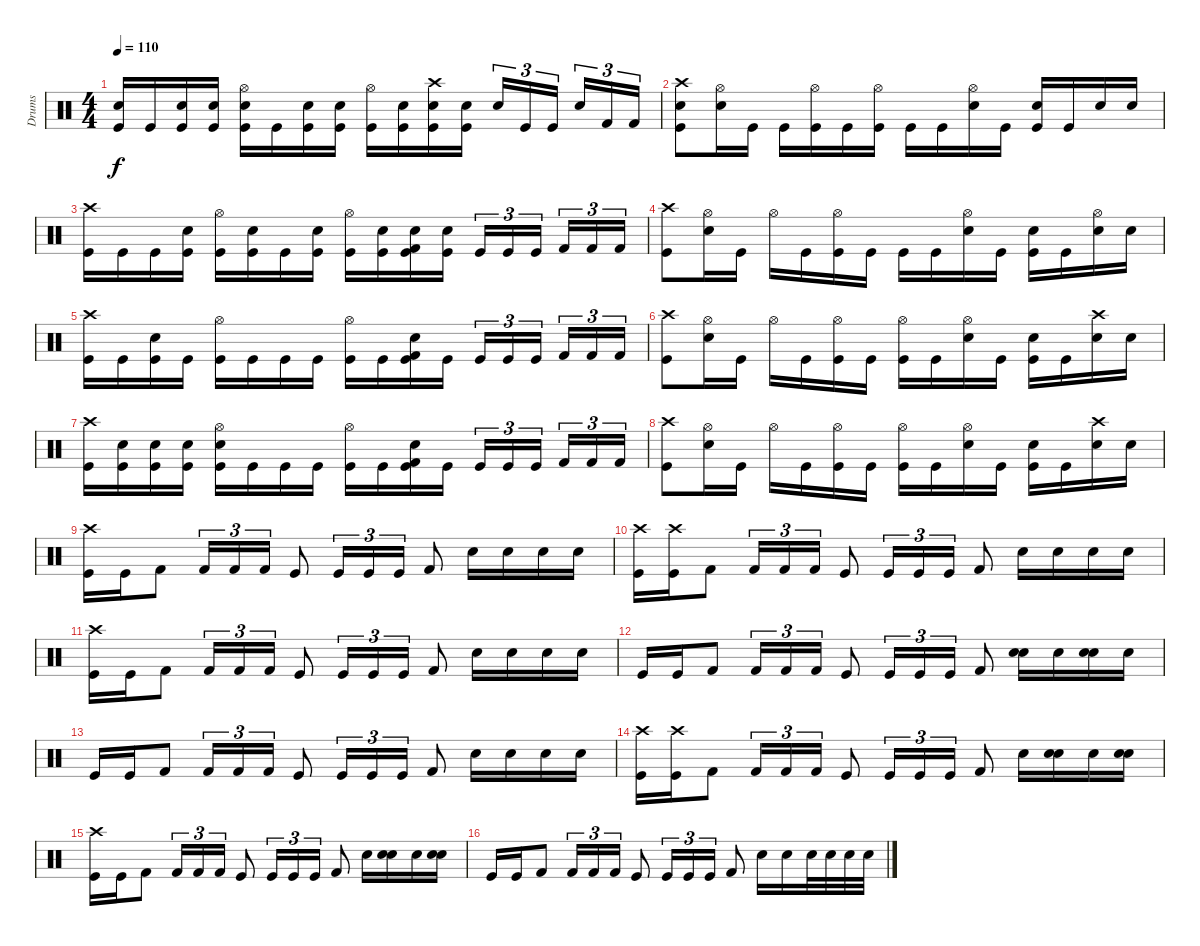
\track ("Drums" "Drums") {instrument percussion}
\staff {score}
\articulation defaults
\ts (4 4)
\tempo 110
\clef neutral
\ks c
("Snare (hit) 2" "Kick (hit)").16{dy f} "Kick (hit)".16 ("Snare (hit) 2" "Kick (hit)").16 ("Snare (hit) 2" "Kick (hit)").16 ("Hi-Hat (open)" "Snare (hit) 2" "Kick (hit)").16 "Kick (hit)".16 ("Snare (hit) 2" "Kick (hit)").16 ("Snare (hit) 2" "Kick (hit)").16 ("Hi-Hat (open)" "Kick (hit)").16 ("Snare (hit) 2" "Kick (hit)").16 ("Crash high (hit)" "Snare (hit) 2" "Kick (hit)").16 ("Snare (hit) 2" "Kick (hit)").16 "Electric Snare (hit)".16{tu (3 2)} "Kick (hit)".16{tu (3 2)} "Kick (hit)".16{tu (3 2)} "Electric Snare (hit)".16{tu (3 2)} "Kick (hit) 2".16{tu (3 2)} "Kick (hit) 2".16{tu (3 2)} |
("Crash high (hit)" "Snare (hit) 2" "Kick (hit)").8 ("Hi-Hat (open)" "Snare (hit) 2").16 "Kick (hit)".16 "Kick (hit)".16 ("Hi-Hat (open)" "Kick (hit)").16 "Kick (hit)".16 ("Hi-Hat (open)" "Kick (hit)").16 "Kick (hit)".16 "Kick (hit)".16 ("Hi-Hat (open)" "Snare (hit) 2").16 "Kick (hit)".16 ("Snare (hit) 2" "Kick (hit)").16 "Kick (hit)".16 "Snare (hit) 2".16 "Snare (hit) 2".16 |
("Crash high (hit)" "Kick (hit)").16 "Kick (hit)".16 "Kick (hit)".16 ("Snare (hit) 2" "Kick (hit)").16 ("Hi-Hat (open)" "Kick (hit)").16 ("Snare (hit) 2" "Kick (hit)").16 "Kick (hit)".16 ("Snare (hit) 2" "Kick (hit)").16 ("Hi-Hat (open)" "Kick (hit)").16 ("Snare (hit) 2" "Kick (hit)").16 ("Kick (hit) 2" "Snare (hit) 2" "Kick (hit)").16 ("Snare (hit) 2" "Kick (hit)").16 "Kick (hit)".16{tu (3 2)} "Kick (hit)".16{tu (3 2)} "Kick (hit)".16{tu (3 2)} "Kick (hit) 2".16{tu (3 2)} "Kick (hit) 2".16{tu (3 2)} "Kick (hit) 2".16{tu (3 2)} |
("Crash high (hit)" "Kick (hit)").8 ("Hi-Hat (open)" "Snare (hit) 2").16 "Kick (hit)".16 "Hi-Hat (open)".16 "Kick (hit)".16 ("Hi-Hat (open)" "Kick (hit)").16 "Kick (hit)".16 "Kick (hit)".16 "Kick (hit)".16 ("Hi-Hat (open)" "Snare (hit) 2").16 "Kick (hit)".16 ("Snare (hit) 2" "Kick (hit)").16 "Kick (hit)".16 ("Hi-Hat (open)" "Snare (hit) 2").16 "Snare (hit) 2".16 |
("Crash high (hit)" "Kick (hit)").16 "Kick (hit)".16 ("Snare (hit) 2" "Kick (hit)").16 "Kick (hit)".16 ("Hi-Hat (open)" "Kick (hit)").16 "Kick (hit)".16 "Kick (hit)".16 "Kick (hit)".16 ("Hi-Hat (open)" "Kick (hit)").16 "Kick (hit)".16 ("Kick (hit) 2" "Snare (hit) 2" "Kick (hit)").16 "Kick (hit)".16 "Kick (hit)".16{tu (3 2)} "Kick (hit)".16{tu (3 2)} "Kick (hit)".16{tu (3 2)} "Kick (hit) 2".16{tu (3 2)} "Kick (hit) 2".16{tu (3 2)} "Kick (hit) 2".16{tu (3 2)} |
("Crash high (hit)" "Kick (hit)").8 ("Hi-Hat (open)" "Snare (hit) 2").16 "Kick (hit)".16 "Hi-Hat (open)".16 "Kick (hit)".16 ("Hi-Hat (open)" "Kick (hit)").16 "Kick (hit)".16 ("Hi-Hat (open)" "Kick (hit)").16 "Kick (hit)".16 ("Hi-Hat (open)" "Snare (hit) 2").16 "Kick (hit)".16 ("Snare (hit) 2" "Kick (hit)").16 "Kick (hit)".16 ("Crash high (hit)" "Snare (hit) 2").16 "Snare (hit) 2".16 |
("Crash high (hit)" "Kick (hit)").16 ("Snare (hit) 2" "Kick (hit)").16 ("Snare (hit) 2" "Kick (hit)").16 ("Snare (hit) 2" "Kick (hit)").16 ("Hi-Hat (open)" "Snare (hit) 2" "Kick (hit)").16 "Kick (hit)".16 "Kick (hit)".16 "Kick (hit)".16 ("Hi-Hat (open)" "Kick (hit)").16 "Kick (hit)".16 ("Kick (hit) 2" "Snare (hit) 2" "Kick (hit)").16 "Kick (hit)".16 "Kick (hit)".16{tu (3 2)} "Kick (hit)".16{tu (3 2)} "Kick (hit)".16{tu (3 2)} "Kick (hit) 2".16{tu (3 2)} "Kick (hit) 2".16{tu (3 2)} "Kick (hit) 2".16{tu (3 2)} |
("Crash high (hit)" "Kick (hit)").8 ("Hi-Hat (open)" "Snare (hit) 2").16 "Kick (hit)".16 "Hi-Hat (open)".16 "Kick (hit)".16 ("Hi-Hat (open)" "Kick (hit)").16 "Kick (hit)".16 ("Hi-Hat (open)" "Kick (hit)").16 "Kick (hit)".16 ("Hi-Hat (open)" "Snare (hit) 2").16 "Kick (hit)".16 ("Snare (hit) 2" "Kick (hit)").16 "Kick (hit)".16 ("Crash high (hit)" "Snare (hit) 2").16 "Snare (hit) 2".16 |
("Crash high (hit)" "Kick (hit)").16 "Kick (hit)".16 "Kick (hit) 2".8 "Kick (hit) 2".16{tu (3 2)} "Kick (hit) 2".16{tu (3 2)} "Kick (hit) 2".16{tu (3 2)} "Kick (hit)".8 "Kick (hit)".16{tu (3 2)} "Kick (hit)".16{tu (3 2)} "Kick (hit)".16{tu (3 2)} "Kick (hit) 2".8 "Snare (hit) 2".16 "Snare (hit) 2".16 "Snare (hit) 2".16 "Snare (hit) 2".16 |
("Crash high (hit)" "Kick (hit)").16 ("Crash high (hit)" "Kick (hit)").16 "Kick (hit) 2".8 "Kick (hit) 2".16{tu (3 2)} "Kick (hit) 2".16{tu (3 2)} "Kick (hit) 2".16{tu (3 2)} "Kick (hit)".8 "Kick (hit)".16{tu (3 2)} "Kick (hit)".16{tu (3 2)} "Kick (hit)".16{tu (3 2)} "Kick (hit) 2".8 "Snare (hit) 2".16 "Snare (hit) 2".16 "Snare (hit) 2".16 "Snare (hit) 2".16 |
("Crash high (hit)" "Kick (hit)").16 "Kick (hit)".16 "Kick (hit) 2".8 "Kick (hit) 2".16{tu (3 2)} "Kick (hit) 2".16{tu (3 2)} "Kick (hit) 2".16{tu (3 2)} "Kick (hit)".8 "Kick (hit)".16{tu (3 2)} "Kick (hit)".16{tu (3 2)} "Kick (hit)".16{tu (3 2)} "Kick (hit) 2".8 "Snare (hit) 2".16 "Snare (hit) 2".16 "Snare (hit) 2".16 "Snare (hit) 2".16 |
"Kick (hit)".16 "Kick (hit)".16 "Kick (hit) 2".8 "Kick (hit) 2".16{tu (3 2)} "Kick (hit) 2".16{tu (3 2)} "Kick (hit) 2".16{tu (3 2)} "Kick (hit)".8 "Kick (hit)".16{tu (3 2)} "Kick (hit)".16{tu (3 2)} "Kick (hit)".16{tu (3 2)} "Kick (hit) 2".8 ("Electric Snare (hit)" "Snare (hit) 2").16 "Snare (hit) 2".16 ("Electric Snare (hit)" "Snare (hit) 2").16 "Snare (hit) 2".16 |
"Kick (hit)".16 "Kick (hit)".16 "Kick (hit) 2".8 "Kick (hit) 2".16{tu (3 2)} "Kick (hit) 2".16{tu (3 2)} "Kick (hit) 2".16{tu (3 2)} "Kick (hit)".8 "Kick (hit)".16{tu (3 2)} "Kick (hit)".16{tu (3 2)} "Kick (hit)".16{tu (3 2)} "Kick (hit) 2".8 "Snare (hit) 2".16 "Snare (hit) 2".16 "Snare (hit) 2".16 "Snare (hit) 2".16 |
("Crash high (hit)" "Kick (hit)").16 ("Crash high (hit)" "Kick (hit)").16 "Kick (hit) 2".8 "Kick (hit) 2".16{tu (3 2)} "Kick (hit) 2".16{tu (3 2)} "Kick (hit) 2".16{tu (3 2)} "Kick (hit)".8 "Kick (hit)".16{tu (3 2)} "Kick (hit)".16{tu (3 2)} "Kick (hit)".16{tu (3 2)} "Kick (hit) 2".8 "Snare (hit) 2".16 ("Electric Snare (hit)" "Snare (hit) 2").16 "Snare (hit) 2".16 ("Electric Snare (hit)" "Snare (hit) 2").16 |
("Crash high (hit)" "Kick (hit)").16 "Kick (hit)".16 "Kick (hit) 2".8 "Kick (hit) 2".16{tu (3 2)} "Kick (hit) 2".16{tu (3 2)} "Kick (hit) 2".16{tu (3 2)} "Kick (hit)".8 "Kick (hit)".16{tu (3 2)} "Kick (hit)".16{tu (3 2)} "Kick (hit)".16{tu (3 2)} "Kick (hit) 2".8 "Snare (hit) 2".16 ("Electric Snare (hit)" "Snare (hit) 2").16 "Snare (hit) 2".16 ("Electric Snare (hit)" "Snare (hit) 2").16 |
"Kick (hit)".16 "Kick (hit)".16 "Kick (hit) 2".8 "Kick (hit) 2".16{tu (3 2)} "Kick (hit) 2".16{tu (3 2)} "Kick (hit) 2".16{tu (3 2)} "Kick (hit)".8 "Kick (hit)".16{tu (3 2)} "Kick (hit)".16{tu (3 2)} "Kick (hit)".16{tu (3 2)} "Kick (hit) 2".8 "Snare (hit) 2".16 "Snare (hit) 2".16 "Snare (hit) 2".32 "Snare (hit) 2".32 "Snare (hit) 2".32 "Snare (hit) 2".32
